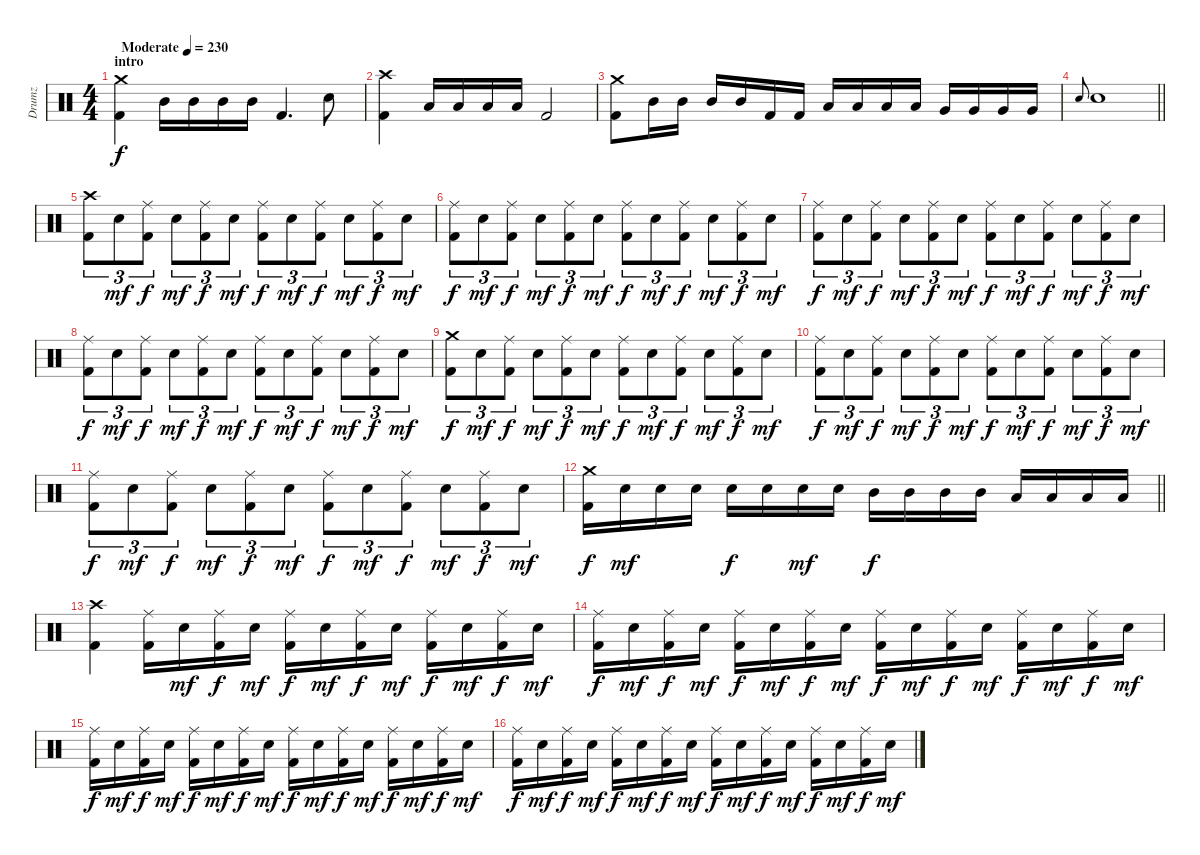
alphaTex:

\track ("Drumz" "Drumz") {instrument percussion}
\staff {score}
\articulation defaults
\ts (4 4)
\section ("" "intro")
\tempo (230 "Moderate")
\clef neutral
\ks c
("Crash medium (hit)" "Kick (hit) 2").4{dy f} "Mid Tom (hit)".16 "Mid Tom (hit)".16 "Mid Tom (hit)".16 "Mid Tom (hit)".16 "Kick (hit) 2".4{d} "Electric Snare (hit)".8 |
("Crash high (hit)" "Kick (hit) 2").4 "Low Tom (hit)".16 "Low Tom (hit)".16 "Low Tom (hit)".16 "Low Tom (hit)".16 "Kick (hit) 2".2 |
("Crash medium (hit)" "Kick (hit) 2").8 "Mid Tom (hit)".16 "Mid Tom (hit)".16 "Mid Tom (hit)".16 "Mid Tom (hit)".16 "Kick (hit) 2".16 "Kick (hit) 2".16 "Low Tom (hit)".16 "Low Tom (hit)".16 "Low Tom (hit)".16 "Low Tom (hit)".16 "Very Low Tom (hit)".16 "Very Low Tom (hit)".16 "Very Low Tom (hit)".16 "Very Low Tom (hit)".16 |
\barLineRight lightlight "Electric Snare (hit)".8{gr onbeat} "Electric Snare (hit)".1
|
\section ("" "")
("Crash high (hit)" "Kick (hit) 2").8{tu (3 2)} "Electric Snare (hit)".8{tu (3 2) dy mf} ("Ride (middle)" "Kick (hit) 2").8{tu (3 2) dy f} "Electric Snare (hit)".8{tu (3 2) dy mf} ("Ride (middle)" "Kick (hit) 2").8{tu (3 2) dy f} "Electric Snare (hit)".8{tu (3 2) dy mf} ("Ride (middle)" "Kick (hit) 2").8{tu (3 2) dy f} "Electric Snare (hit)".8{tu (3 2) dy mf} ("Ride (middle)" "Kick (hit) 2").8{tu (3 2) dy f} "Electric Snare (hit)".8{tu (3 2) dy mf} ("Ride (middle)" "Kick (hit) 2").8{tu (3 2) dy f} "Electric Snare (hit)".8{tu (3 2) dy mf} |
("Ride (middle)" "Kick (hit) 2").8{tu (3 2) dy f} "Electric Snare (hit)".8{tu (3 2) dy mf} ("Ride (middle)" "Kick (hit) 2").8{tu (3 2) dy f} "Electric Snare (hit)".8{tu (3 2) dy mf} ("Ride (middle)" "Kick (hit) 2").8{tu (3 2) dy f} "Electric Snare (hit)".8{tu (3 2) dy mf} ("Ride (middle)" "Kick (hit) 2").8{tu (3 2) dy f} "Electric Snare (hit)".8{tu (3 2) dy mf} ("Ride (middle)" "Kick (hit) 2").8{tu (3 2) dy f} "Electric Snare (hit)".8{tu (3 2) dy mf} ("Ride (middle)" "Kick (hit) 2").8{tu (3 2) dy f} "Electric Snare (hit)".8{tu (3 2) dy mf} |
("Ride (middle)" "Kick (hit) 2").8{tu (3 2) dy f} "Electric Snare (hit)".8{tu (3 2) dy mf} ("Ride (middle)" "Kick (hit) 2").8{tu (3 2) dy f} "Electric Snare (hit)".8{tu (3 2) dy mf} ("Ride (middle)" "Kick (hit) 2").8{tu (3 2) dy f} "Electric Snare (hit)".8{tu (3 2) dy mf} ("Ride (middle)" "Kick (hit) 2").8{tu (3 2) dy f} "Electric Snare (hit)".8{tu (3 2) dy mf} ("Ride (middle)" "Kick (hit) 2").8{tu (3 2) dy f} "Electric Snare (hit)".8{tu (3 2) dy mf} ("Ride (middle)" "Kick (hit) 2").8{tu (3 2) dy f} "Electric Snare (hit)".8{tu (3 2) dy mf} |
("Ride (middle)" "Kick (hit) 2").8{tu (3 2) dy f} "Electric Snare (hit)".8{tu (3 2) dy mf} ("Ride (middle)" "Kick (hit) 2").8{tu (3 2) dy f} "Electric Snare (hit)".8{tu (3 2) dy mf} ("Ride (middle)" "Kick (hit) 2").8{tu (3 2) dy f} "Electric Snare (hit)".8{tu (3 2) dy mf} ("Ride (middle)" "Kick (hit) 2").8{tu (3 2) dy f} "Electric Snare (hit)".8{tu (3 2) dy mf} ("Ride (middle)" "Kick (hit) 2").8{tu (3 2) dy f} "Electric Snare (hit)".8{tu (3 2) dy mf} ("Ride (middle)" "Kick (hit) 2").8{tu (3 2) dy f} "Electric Snare (hit)".8{tu (3 2) dy mf} |
("Crash medium (hit)" "Kick (hit) 2").8{tu (3 2) dy f} "Electric Snare (hit)".8{tu (3 2) dy mf} ("Ride (middle)" "Kick (hit) 2").8{tu (3 2) dy f} "Electric Snare (hit)".8{tu (3 2) dy mf} ("Ride (middle)" "Kick (hit) 2").8{tu (3 2) dy f} "Electric Snare (hit)".8{tu (3 2) dy mf} ("Ride (middle)" "Kick (hit) 2").8{tu (3 2) dy f} "Electric Snare (hit)".8{tu (3 2) dy mf} ("Ride (middle)" "Kick (hit) 2").8{tu (3 2) dy f} "Electric Snare (hit)".8{tu (3 2) dy mf} ("Ride (middle)" "Kick (hit) 2").8{tu (3 2) dy f} "Electric Snare (hit)".8{tu (3 2) dy mf} |
("Ride (middle)" "Kick (hit) 2").8{tu (3 2) dy f} "Electric Snare (hit)".8{tu (3 2) dy mf} ("Ride (middle)" "Kick (hit) 2").8{tu (3 2) dy f} "Electric Snare (hit)".8{tu (3 2) dy mf} ("Ride (middle)" "Kick (hit) 2").8{tu (3 2) dy f} "Electric Snare (hit)".8{tu (3 2) dy mf} ("Ride (middle)" "Kick (hit) 2").8{tu (3 2) dy f} "Electric Snare (hit)".8{tu (3 2) dy mf} ("Ride (middle)" "Kick (hit) 2").8{tu (3 2) dy f} "Electric Snare (hit)".8{tu (3 2) dy mf} ("Ride (middle)" "Kick (hit) 2").8{tu (3 2) dy f} "Electric Snare (hit)".8{tu (3 2) dy mf} |
("Ride (middle)" "Kick (hit) 2").8{tu (3 2) dy f} "Electric Snare (hit)".8{tu (3 2) dy mf} ("Ride (middle)" "Kick (hit) 2").8{tu (3 2) dy f} "Electric Snare (hit)".8{tu (3 2) dy mf} ("Ride (middle)" "Kick (hit) 2").8{tu (3 2) dy f} "Electric Snare (hit)".8{tu (3 2) dy mf} ("Ride (middle)" "Kick (hit) 2").8{tu (3 2) dy f} "Electric Snare (hit)".8{tu (3 2) dy mf} ("Ride (middle)" "Kick (hit) 2").8{tu (3 2) dy f} "Electric Snare (hit)".8{tu (3 2) dy mf} ("Ride (middle)" "Kick (hit) 2").8{tu (3 2) dy f} "Electric Snare (hit)".8{tu (3 2) dy mf} |
\barLineRight lightlight
("Crash medium (hit)" "Kick (hit) 2").16{dy f} "Electric Snare (hit)".16{dy mf} "Electric Snare (hit)".16 "Electric Snare (hit)".16 "Electric Snare (hit)".16{dy f} "Electric Snare (hit)".16 "Electric Snare (hit)".16{dy mf} "Electric Snare (hit)".16 "Mid Tom (hit)".16{dy f} "Mid Tom (hit)".16 "Mid Tom (hit)".16 "Mid Tom (hit)".16 "Low Tom (hit)".16 "Low Tom (hit)".16 "Low Tom (hit)".16 "Low Tom (hit)".16 |
\section ("" "")
("Crash high (hit)" "Kick (hit) 2").4 ("Ride (middle)" "Kick (hit) 2").16 "Electric Snare (hit)".16{dy mf} ("Ride (middle)" "Kick (hit) 2").16{dy f} "Electric Snare (hit)".16{dy mf} ("Ride (middle)" "Kick (hit) 2").16{dy f} "Electric Snare (hit)".16{dy mf} ("Ride (middle)" "Kick (hit) 2").16{dy f} "Electric Snare (hit)".16{dy mf} ("Ride (middle)" "Kick (hit) 2").16{dy f} "Electric Snare (hit)".16{dy mf} ("Ride (middle)" "Kick (hit) 2").16{dy f} "Electric Snare (hit)".16{dy mf} |
("Ride (middle)" "Kick (hit) 2").16{dy f} "Electric Snare (hit)".16{dy mf} ("Ride (middle)" "Kick (hit) 2").16{dy f} "Electric Snare (hit)".16{dy mf} ("Ride (middle)" "Kick (hit) 2").16{dy f} "Electric Snare (hit)".16{dy mf} ("Ride (middle)" "Kick (hit) 2").16{dy f} "Electric Snare (hit)".16{dy mf} ("Ride (middle)" "Kick (hit) 2").16{dy f} "Electric Snare (hit)".16{dy mf} ("Ride (middle)" "Kick (hit) 2").16{dy f} "Electric Snare (hit)".16{dy mf} ("Ride (middle)" "Kick (hit) 2").16{dy f} "Electric Snare (hit)".16{dy mf} ("Ride (middle)" "Kick (hit) 2").16{dy f} "Electric Snare (hit)".16{dy mf} |
("Ride (middle)" "Kick (hit) 2").16{dy f} "Electric Snare (hit)".16{dy mf} ("Ride (middle)" "Kick (hit) 2").16{dy f} "Electric Snare (hit)".16{dy mf} ("Ride (middle)" "Kick (hit) 2").16{dy f} "Electric Snare (hit)".16{dy mf} ("Ride (middle)" "Kick (hit) 2").16{dy f} "Electric Snare (hit)".16{dy mf} ("Ride (middle)" "Kick (hit) 2").16{dy f} "Electric Snare (hit)".16{dy mf} ("Ride (middle)" "Kick (hit) 2").16{dy f} "Electric Snare (hit)".16{dy mf} ("Ride (middle)" "Kick (hit) 2").16{dy f} "Electric Snare (hit)".16{dy mf} ("Ride (middle)" "Kick (hit) 2").16{dy f} "Electric Snare (hit)".16{dy mf} |
("Ride (middle)" "Kick (hit) 2").16{dy f} "Electric Snare (hit)".16{dy mf} ("Ride (middle)" "Kick (hit) 2").16{dy f} "Electric Snare (hit)".16{dy mf} ("Ride (middle)" "Kick (hit) 2").16{dy f} "Electric Snare (hit)".16{dy mf} ("Ride (middle)" "Kick (hit) 2").16{dy f} "Electric Snare (hit)".16{dy mf} ("Ride (middle)" "Kick (hit) 2").16{dy f} "Electric Snare (hit)".16{dy mf} ("Ride (middle)" "Kick (hit) 2").16{dy f} "Electric Snare (hit)".16{dy mf} ("Ride (middle)" "Kick (hit) 2").16{dy f} "Electric Snare (hit)".16{dy mf} ("Ride (middle)" "Kick (hit) 2").16{dy f} "Electric Snare (hit)".16{dy mf}
